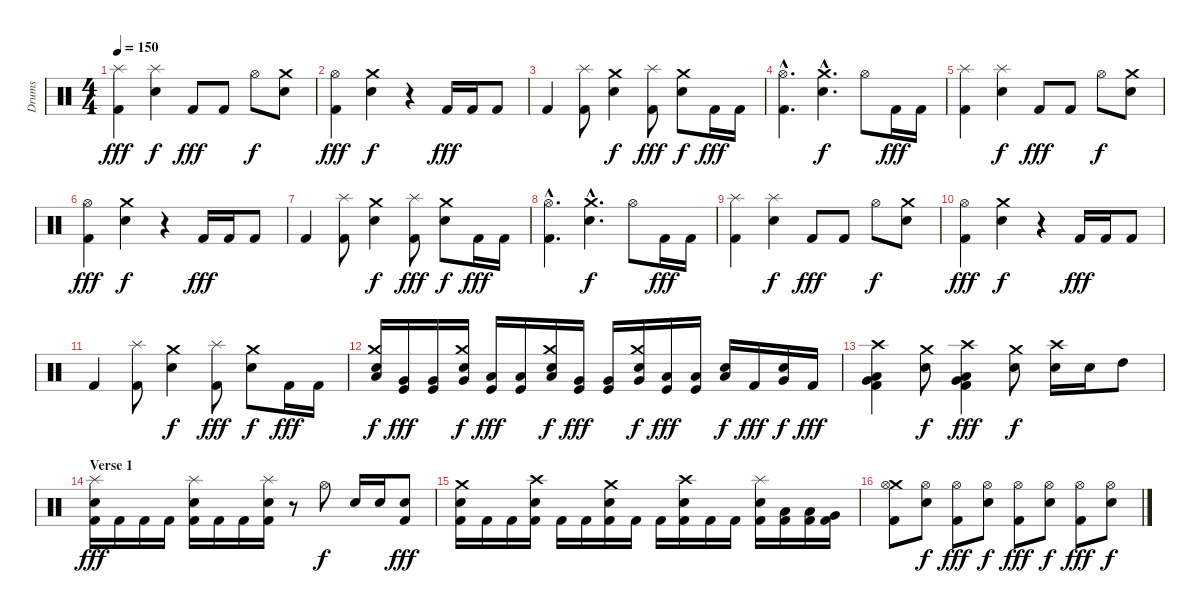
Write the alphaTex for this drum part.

\track ("Drums" "Drums") {instrument percussion}
\staff {score}
\articulation defaults
\ts (4 4)
\tempo 150
\clef neutral
\ks c
("Splash (hit)" "Kick (hit) 2").4{dy fff} ("Splash (hit)" "Electric Snare (hit)").4{dy f} "Kick (hit) 2".8{dy fff} "Kick (hit) 2".8 "Hi-Hat (open)".8{dy f} ("Crash medium (hit)" "Electric Snare (hit)").8 |
("Hi-Hat (open)" "Kick (hit) 2").4{dy fff} ("Crash medium (hit)" "Electric Snare (hit)").4{dy f} r.4 "Kick (hit) 2".16{dy fff} "Kick (hit) 2".16 "Kick (hit) 2".8 |
"Kick (hit) 2".4 ("Splash (hit)" "Kick (hit) 2").8 ("Crash medium (hit)" "Electric Snare (hit)").4{dy f} ("Splash (hit)" "Kick (hit) 2").8{dy fff} ("Crash medium (hit)" "Electric Snare (hit)").8{dy f} "Kick (hit) 2".16{dy fff} "Kick (hit) 2".16 |
("Hi-Hat (open)"{hac} "Kick (hit) 2"{hac}).4{d} ("Crash medium (hit)"{hac} "Electric Snare (hit)"{hac}).4{d dy f} "Hi-Hat (open)".8 "Kick (hit) 2".16{dy fff} "Kick (hit) 2".16 |
("Splash (hit)" "Kick (hit) 2").4 ("Splash (hit)" "Electric Snare (hit)").4{dy f} "Kick (hit) 2".8{dy fff} "Kick (hit) 2".8 "Hi-Hat (open)".8{dy f} ("Crash medium (hit)" "Electric Snare (hit)").8 |
("Hi-Hat (open)" "Kick (hit) 2").4{dy fff} ("Crash medium (hit)" "Electric Snare (hit)").4{dy f} r.4 "Kick (hit) 2".16{dy fff} "Kick (hit) 2".16 "Kick (hit) 2".8 |
"Kick (hit) 2".4 ("Splash (hit)" "Kick (hit) 2").8 ("Crash medium (hit)" "Electric Snare (hit)").4{dy f} ("Splash (hit)" "Kick (hit) 2").8{dy fff} ("Crash medium (hit)" "Electric Snare (hit)").8{dy f} "Kick (hit) 2".16{dy fff} "Kick (hit) 2".16 |
("Hi-Hat (open)"{hac} "Kick (hit) 2"{hac}).4{d} ("Crash medium (hit)"{hac} "Electric Snare (hit)"{hac}).4{d dy f} "Hi-Hat (open)".8 "Kick (hit) 2".16{dy fff} "Kick (hit) 2".16 |
("Splash (hit)" "Kick (hit) 2").4 ("Splash (hit)" "Electric Snare (hit)").4{dy f} "Kick (hit) 2".8{dy fff} "Kick (hit) 2".8 "Hi-Hat (open)".8{dy f} ("Crash medium (hit)" "Electric Snare (hit)").8 |
("Hi-Hat (open)" "Kick (hit) 2").4{dy fff} ("Crash medium (hit)" "Electric Snare (hit)").4{dy f} r.4 "Kick (hit) 2".16{dy fff} "Kick (hit) 2".16 "Kick (hit) 2".8 |
"Kick (hit) 2".4 ("Splash (hit)" "Kick (hit) 2").8 ("Crash medium (hit)" "Electric Snare (hit)").4{dy f} ("Splash (hit)" "Kick (hit) 2").8{dy fff} ("Crash medium (hit)" "Electric Snare (hit)").8{dy f} "Kick (hit) 2".16{dy fff} "Kick (hit) 2".16 |
("Crash medium (hit)" "Low Tom (hit)" "Electric Snare (hit)").16{dy f} ("Very Low Tom (hit)" "Kick (hit)").16{dy fff} ("Very Low Tom (hit)" "Kick (hit)").16 ("Crash medium (hit)" "Very Low Tom (hit)" "Electric Snare (hit)").16{dy f} ("Low Floor Tom (hit)" "Kick (hit)").16{dy fff} ("Low Floor Tom (hit)" "Kick (hit)").16 ("Crash medium (hit)" "Low Tom (hit)" "Electric Snare (hit)").16{dy f} ("Very Low Tom (hit)" "Kick (hit)").16{dy fff} ("Very Low Tom (hit)" "Kick (hit)").16 ("Crash medium (hit)" "Very Low Tom (hit)" "Electric Snare (hit)").16{dy f} ("Low Floor Tom (hit)" "Kick (hit)").16{dy fff} ("Low Floor Tom (hit)" "Kick (hit)").16 ("Low Tom (hit)" "Electric Snare (hit)").16{dy f} "Kick (hit) 2".16{dy fff} ("Very Low Tom (hit)" "Electric Snare (hit)").16{dy f} "Kick (hit) 2".16{dy fff} |
("Crash high (hit)" "Low Tom (hit)" "Very Low Tom (hit)" "Kick (hit) 2").4 ("Crash medium (hit)" "Electric Snare (hit)").8{dy f} ("Crash high (hit)" "Low Tom (hit)" "Very Low Tom (hit)" "Kick (hit) 2").4{dy fff} ("Crash medium (hit)" "Electric Snare (hit)").8{dy f} ("Crash high (hit)" "Electric Snare (hit)").16 "Electric Snare (hit)".16 "High Tom (hit)".8 |
\section ("" "Verse 1")
("Splash (hit)" "Electric Snare (hit)" "Kick (hit) 2").16{dy fff} "Kick (hit) 2".16 "Kick (hit) 2".16 "Kick (hit) 2".16 ("Splash (hit)" "Electric Snare (hit)" "Kick (hit) 2").16 "Kick (hit) 2".16 "Kick (hit) 2".16 ("Splash (hit)" "Electric Snare (hit)" "Kick (hit) 2").16 r.8 "Hi-Hat (open)".8{dy f} "Electric Snare (hit)".16 "Electric Snare (hit)".16 ("Electric Snare (hit)" "Kick (hit) 2").8{dy fff} |
("Crash medium (hit)" "Electric Snare (hit)" "Kick (hit) 2").16 "Kick (hit) 2".16 "Kick (hit) 2".16 ("Crash high (hit)" "Electric Snare (hit)" "Kick (hit) 2").16 "Kick (hit) 2".16 "Kick (hit) 2".16 ("Crash medium (hit)" "Electric Snare (hit)" "Kick (hit) 2").16 "Kick (hit) 2".16 "Kick (hit) 2".16 ("Crash high (hit)" "Electric Snare (hit)" "Kick (hit) 2").16 "Kick (hit) 2".16 "Kick (hit) 2".16 ("Splash (hit)" "Electric Snare (hit)" "Kick (hit) 2").16 ("Low Tom (hit)" "Kick (hit) 2").16 ("Low Tom (hit)" "Kick (hit) 2").16 ("Very Low Tom (hit)" "Kick (hit) 2").16 |
("Crash medium (hit)" "Hi-Hat (open)" "Kick (hit) 2").8 ("Hi-Hat (open)" "Electric Snare (hit)").8{dy f} ("Hi-Hat (open)" "Kick (hit) 2").8{dy fff} ("Hi-Hat (open)" "Electric Snare (hit)").8{dy f} ("Hi-Hat (open)" "Kick (hit) 2").8{dy fff} ("Hi-Hat (open)" "Electric Snare (hit)").8{dy f} ("Hi-Hat (open)" "Kick (hit) 2").8{dy fff} ("Hi-Hat (open)" "Electric Snare (hit)").8{dy f}
